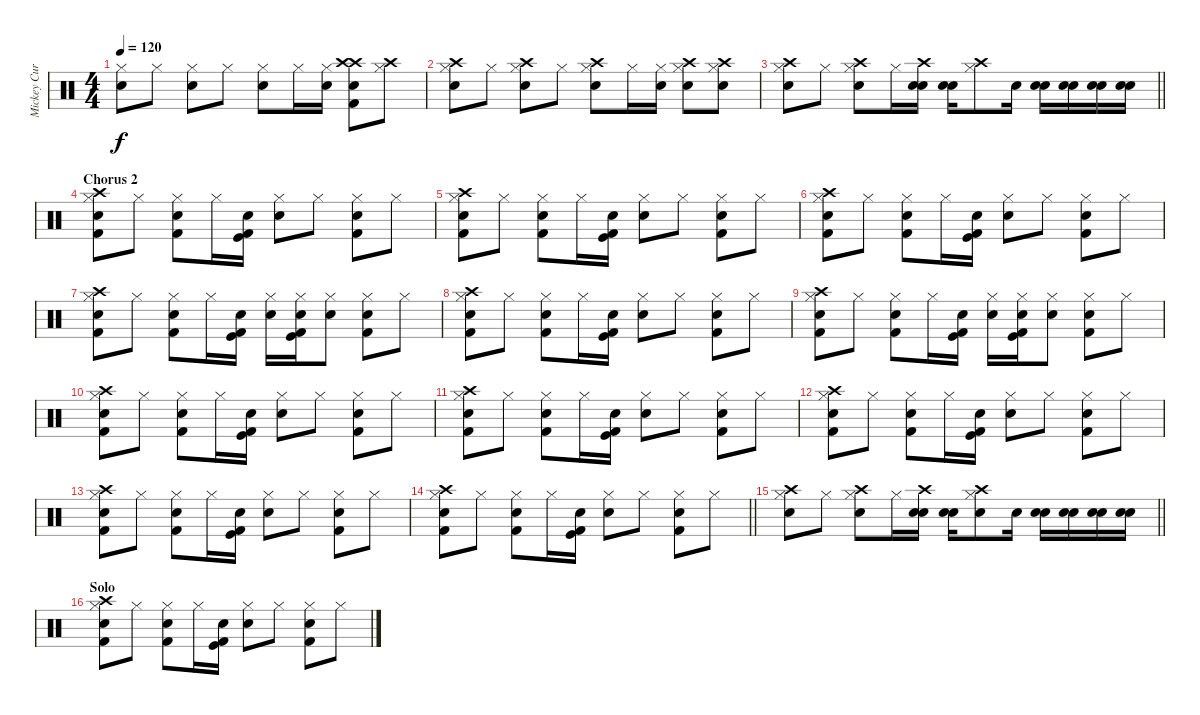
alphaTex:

\track ("Mickey Curry" "Mickey Cur") {instrument percussion}
\staff {score}
\articulation defaults
\ts (4 4)
\tempo 120
\clef neutral
\ks c
("Hi-Hat (closed)" "Snare (hit) 2").8{dy f} "Hi-Hat (closed)".8 ("Hi-Hat (closed)" "Snare (hit) 2").8 "Hi-Hat (closed)".8 ("Hi-Hat (closed)" "Snare (hit) 2").8 "Hi-Hat (closed)".16 ("Hi-Hat (closed)" "Electric Snare (hit)").16 ("Crash high (hit)" "Snare (hit) 2" "Kick (hit) 2" "Crash high (hit)").8 ("Hi-Hat (closed)" "Crash high (hit)").8 |
("Hi-Hat (closed)" "Snare (hit) 2" "Crash high (hit)").8 "Hi-Hat (closed)".8 ("Hi-Hat (closed)" "Snare (hit) 2" "Crash high (hit)").8 "Hi-Hat (closed)".8 ("Hi-Hat (closed)" "Snare (hit) 2" "Crash high (hit)").8 "Hi-Hat (closed)".16 ("Hi-Hat (closed)" "Electric Snare (hit)").16 ("Hi-Hat (closed)" "Snare (hit) 2" "Crash high (hit)").8 ("Hi-Hat (closed)" "Snare (hit) 2" "Crash high (hit)").8 |
\barLineRight lightlight
("Hi-Hat (closed)" "Snare (hit) 2" "Crash high (hit)").8 "Hi-Hat (closed)".8 ("Hi-Hat (closed)" "Snare (hit) 2" "Crash high (hit)").8 "Hi-Hat (closed)".16 ("Snare (hit) 2" "Snare (hit) 2" "Crash high (hit)").16 ("Snare (hit) 2" "Snare (hit) 2").16 ("Hi-Hat (closed)" "Crash high (hit)").8 "Snare (hit) 2".16 ("Snare (hit) 2" "Snare (hit) 2").16 ("Snare (hit) 2" "Snare (hit) 2").16 ("Snare (hit) 2" "Snare (hit) 2").16 ("Snare (hit) 2" "Snare (hit) 2").16 |
\section ("" "Chorus 2")
("Hi-Hat (closed)" "Snare (hit) 2" "Kick (hit) 2" "Crash high (hit)").8 "Hi-Hat (closed)".8 ("Hi-Hat (closed)" "Snare (hit) 2" "Kick (hit) 2").8 "Hi-Hat (closed)".16 ("Kick (hit)" "Kick (hit) 2" "Electric Snare (hit)").16 ("Hi-Hat (closed)" "Snare (hit) 2").8 "Hi-Hat (closed)".8 ("Hi-Hat (closed)" "Snare (hit) 2" "Kick (hit) 2").8 "Hi-Hat (closed)".8 |
("Hi-Hat (closed)" "Snare (hit) 2" "Kick (hit) 2" "Crash high (hit)").8 "Hi-Hat (closed)".8 ("Hi-Hat (closed)" "Snare (hit) 2" "Kick (hit) 2").8 "Hi-Hat (closed)".16 ("Kick (hit)" "Kick (hit) 2" "Electric Snare (hit)").16 ("Hi-Hat (closed)" "Snare (hit) 2").8 "Hi-Hat (closed)".8 ("Hi-Hat (closed)" "Snare (hit) 2" "Kick (hit) 2").8 "Hi-Hat (closed)".8 |
("Hi-Hat (closed)" "Snare (hit) 2" "Kick (hit) 2" "Crash high (hit)").8 "Hi-Hat (closed)".8 ("Hi-Hat (closed)" "Snare (hit) 2" "Kick (hit) 2").8 "Hi-Hat (closed)".16 ("Kick (hit)" "Kick (hit) 2" "Electric Snare (hit)").16 ("Hi-Hat (closed)" "Snare (hit) 2").8 "Hi-Hat (closed)".8 ("Hi-Hat (closed)" "Snare (hit) 2" "Kick (hit) 2").8 "Hi-Hat (closed)".8 |
("Hi-Hat (closed)" "Snare (hit) 2" "Kick (hit) 2" "Crash high (hit)").8 "Hi-Hat (closed)".8 ("Hi-Hat (closed)" "Snare (hit) 2" "Kick (hit) 2").8 "Hi-Hat (closed)".16 ("Kick (hit)" "Kick (hit) 2" "Electric Snare (hit)").16 ("Hi-Hat (closed)" "Snare (hit) 2").16 ("Hi-Hat (closed)" "Kick (hit)" "Kick (hit) 2" "Electric Snare (hit)").16 ("Hi-Hat (closed)" "Snare (hit) 2").8 ("Hi-Hat (closed)" "Snare (hit) 2" "Kick (hit) 2").8 "Hi-Hat (closed)".8 |
("Hi-Hat (closed)" "Snare (hit) 2" "Kick (hit) 2" "Crash high (hit)").8 "Hi-Hat (closed)".8 ("Hi-Hat (closed)" "Snare (hit) 2" "Kick (hit) 2").8 "Hi-Hat (closed)".16 ("Kick (hit)" "Kick (hit) 2" "Electric Snare (hit)").16 ("Hi-Hat (closed)" "Snare (hit) 2").8 "Hi-Hat (closed)".8 ("Hi-Hat (closed)" "Snare (hit) 2" "Kick (hit) 2").8 "Hi-Hat (closed)".8 |
("Hi-Hat (closed)" "Snare (hit) 2" "Kick (hit) 2" "Crash high (hit)").8 "Hi-Hat (closed)".8 ("Hi-Hat (closed)" "Snare (hit) 2" "Kick (hit) 2").8 "Hi-Hat (closed)".16 ("Kick (hit)" "Kick (hit) 2" "Electric Snare (hit)").16 ("Hi-Hat (closed)" "Snare (hit) 2").16 ("Hi-Hat (closed)" "Kick (hit)" "Kick (hit) 2" "Electric Snare (hit)").16 ("Hi-Hat (closed)" "Snare (hit) 2").8 ("Hi-Hat (closed)" "Snare (hit) 2" "Kick (hit) 2").8 "Hi-Hat (closed)".8 |
("Hi-Hat (closed)" "Snare (hit) 2" "Kick (hit) 2" "Crash high (hit)").8 "Hi-Hat (closed)".8 ("Hi-Hat (closed)" "Snare (hit) 2" "Kick (hit) 2").8 "Hi-Hat (closed)".16 ("Kick (hit)" "Kick (hit) 2" "Electric Snare (hit)").16 ("Hi-Hat (closed)" "Snare (hit) 2").8 "Hi-Hat (closed)".8 ("Hi-Hat (closed)" "Snare (hit) 2" "Kick (hit) 2").8 "Hi-Hat (closed)".8 |
("Hi-Hat (closed)" "Snare (hit) 2" "Kick (hit) 2" "Crash high (hit)").8 "Hi-Hat (closed)".8 ("Hi-Hat (closed)" "Snare (hit) 2" "Kick (hit) 2").8 "Hi-Hat (closed)".16 ("Kick (hit)" "Kick (hit) 2" "Electric Snare (hit)").16 ("Hi-Hat (closed)" "Snare (hit) 2").8 "Hi-Hat (closed)".8 ("Hi-Hat (closed)" "Snare (hit) 2" "Kick (hit) 2").8 "Hi-Hat (closed)".8 |
("Hi-Hat (closed)" "Snare (hit) 2" "Kick (hit) 2" "Crash high (hit)").8 "Hi-Hat (closed)".8 ("Hi-Hat (closed)" "Snare (hit) 2" "Kick (hit) 2").8 "Hi-Hat (closed)".16 ("Kick (hit)" "Kick (hit) 2" "Electric Snare (hit)").16 ("Hi-Hat (closed)" "Snare (hit) 2").8 "Hi-Hat (closed)".8 ("Hi-Hat (closed)" "Snare (hit) 2" "Kick (hit) 2").8 "Hi-Hat (closed)".8 |
("Hi-Hat (closed)" "Snare (hit) 2" "Kick (hit) 2" "Crash high (hit)").8 "Hi-Hat (closed)".8 ("Hi-Hat (closed)" "Snare (hit) 2" "Kick (hit) 2").8 "Hi-Hat (closed)".16 ("Kick (hit)" "Kick (hit) 2" "Electric Snare (hit)").16 ("Hi-Hat (closed)" "Snare (hit) 2").8 "Hi-Hat (closed)".8 ("Hi-Hat (closed)" "Snare (hit) 2" "Kick (hit) 2").8 "Hi-Hat (closed)".8 |
\barLineRight lightlight
("Hi-Hat (closed)" "Snare (hit) 2" "Kick (hit) 2" "Crash high (hit)").8 "Hi-Hat (closed)".8 ("Hi-Hat (closed)" "Snare (hit) 2" "Kick (hit) 2").8 "Hi-Hat (closed)".16 ("Kick (hit)" "Kick (hit) 2" "Electric Snare (hit)").16 ("Hi-Hat (closed)" "Snare (hit) 2").8 "Hi-Hat (closed)".8 ("Hi-Hat (closed)" "Snare (hit) 2" "Kick (hit) 2").8 "Hi-Hat (closed)".8 |
\barLineRight lightlight
("Hi-Hat (closed)" "Snare (hit) 2" "Crash high (hit)").8 "Hi-Hat (closed)".8 ("Hi-Hat (closed)" "Snare (hit) 2" "Crash high (hit)").8 "Hi-Hat (closed)".16 ("Snare (hit) 2" "Snare (hit) 2" "Crash high (hit)").16 ("Snare (hit) 2" "Snare (hit) 2").16 ("Snare (hit) 2" "Hi-Hat (closed)" "Crash high (hit)").8 "Snare (hit) 2".16 ("Snare (hit) 2" "Snare (hit) 2").16 ("Snare (hit) 2" "Snare (hit) 2").16 ("Snare (hit) 2" "Snare (hit) 2").16 ("Snare (hit) 2" "Snare (hit) 2").16 |
\section ("" "Solo")
("Hi-Hat (closed)" "Snare (hit) 2" "Kick (hit) 2" "Crash high (hit)").8 "Hi-Hat (closed)".8 ("Hi-Hat (closed)" "Snare (hit) 2" "Kick (hit) 2").8 "Hi-Hat (closed)".16 ("Kick (hit)" "Kick (hit) 2" "Electric Snare (hit)").16 ("Hi-Hat (closed)" "Snare (hit) 2").8 "Hi-Hat (closed)".8 ("Hi-Hat (closed)" "Snare (hit) 2" "Kick (hit) 2").8 "Hi-Hat (closed)".8
